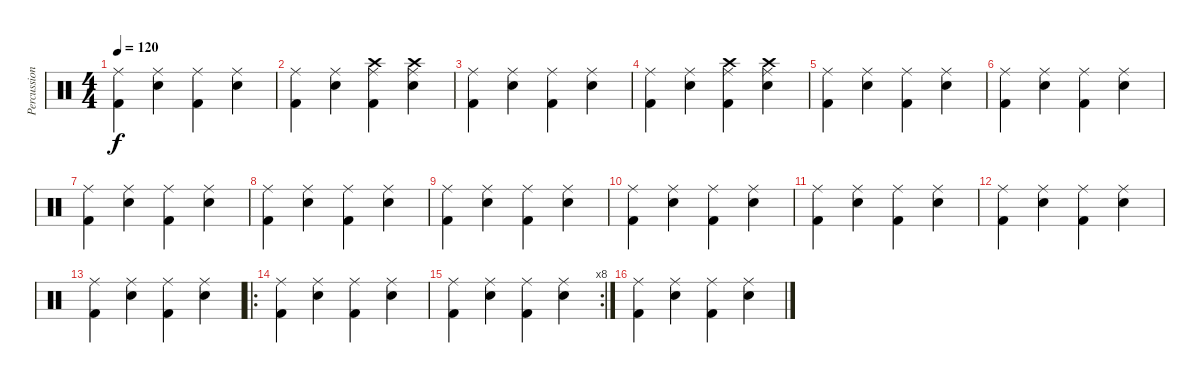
\track ("Percussions" "Percussion") {instrument percussion}
\staff {score}
\articulation defaults
\ts (4 4)
\tempo 120
\clef neutral
\ks c
("Ride (middle)" "Kick (hit) 2").4{dy f} ("Ride (middle)" "Electric Snare (hit)").4 ("Ride (middle)" "Kick (hit) 2").4 ("Ride (middle)" "Electric Snare (hit)").4 |
("Ride (middle)" "Kick (hit) 2").4 ("Ride (middle)" "Electric Snare (hit)").4 ("Ride (middle)" "Kick (hit) 2" "Crash high (hit)").4 ("Ride (middle)" "Electric Snare (hit)" "Crash high (hit)").4 |
("Ride (middle)" "Kick (hit) 2").4 ("Ride (middle)" "Electric Snare (hit)").4 ("Ride (middle)" "Kick (hit) 2").4 ("Ride (middle)" "Electric Snare (hit)").4 |
("Ride (middle)" "Kick (hit) 2").4 ("Ride (middle)" "Electric Snare (hit)").4 ("Ride (middle)" "Kick (hit) 2" "Crash high (hit)").4 ("Ride (middle)" "Electric Snare (hit)" "Crash high (hit)").4 |
("Ride (middle)" "Kick (hit) 2").4 ("Ride (middle)" "Electric Snare (hit)").4 ("Ride (middle)" "Kick (hit) 2").4 ("Ride (middle)" "Electric Snare (hit)").4 |
("Ride (middle)" "Kick (hit) 2").4 ("Ride (middle)" "Electric Snare (hit)").4 ("Ride (middle)" "Kick (hit) 2").4 ("Ride (middle)" "Electric Snare (hit)").4 |
("Ride (middle)" "Kick (hit) 2").4 ("Ride (middle)" "Electric Snare (hit)").4 ("Ride (middle)" "Kick (hit) 2").4 ("Ride (middle)" "Electric Snare (hit)").4 |
("Ride (middle)" "Kick (hit) 2").4 ("Ride (middle)" "Electric Snare (hit)").4 ("Ride (middle)" "Kick (hit) 2").4 ("Ride (middle)" "Electric Snare (hit)").4 |
("Ride (middle)" "Kick (hit) 2").4 ("Ride (middle)" "Electric Snare (hit)").4 ("Ride (middle)" "Kick (hit) 2").4 ("Ride (middle)" "Electric Snare (hit)").4 |
("Ride (middle)" "Kick (hit) 2").4 ("Ride (middle)" "Electric Snare (hit)").4 ("Ride (middle)" "Kick (hit) 2").4 ("Ride (middle)" "Electric Snare (hit)").4 |
("Ride (middle)" "Kick (hit) 2").4 ("Ride (middle)" "Electric Snare (hit)").4 ("Ride (middle)" "Kick (hit) 2").4 ("Ride (middle)" "Electric Snare (hit)").4 |
("Ride (middle)" "Kick (hit) 2").4 ("Ride (middle)" "Electric Snare (hit)").4 ("Ride (middle)" "Kick (hit) 2").4 ("Ride (middle)" "Electric Snare (hit)").4 |
("Ride (middle)" "Kick (hit) 2").4 ("Ride (middle)" "Electric Snare (hit)").4 ("Ride (middle)" "Kick (hit) 2").4 ("Ride (middle)" "Electric Snare (hit)").4 |
\ro
("Ride (middle)" "Kick (hit) 2").4 ("Ride (middle)" "Electric Snare (hit)").4 ("Ride (middle)" "Kick (hit) 2").4 ("Ride (middle)" "Electric Snare (hit)").4 |
\rc 8
("Ride (middle)" "Kick (hit) 2").4 ("Ride (middle)" "Electric Snare (hit)").4 ("Ride (middle)" "Kick (hit) 2").4 ("Ride (middle)" "Electric Snare (hit)").4 |
("Ride (middle)" "Kick (hit) 2").4 ("Ride (middle)" "Electric Snare (hit)").4 ("Ride (middle)" "Kick (hit) 2").4 ("Ride (middle)" "Electric Snare (hit)").4
